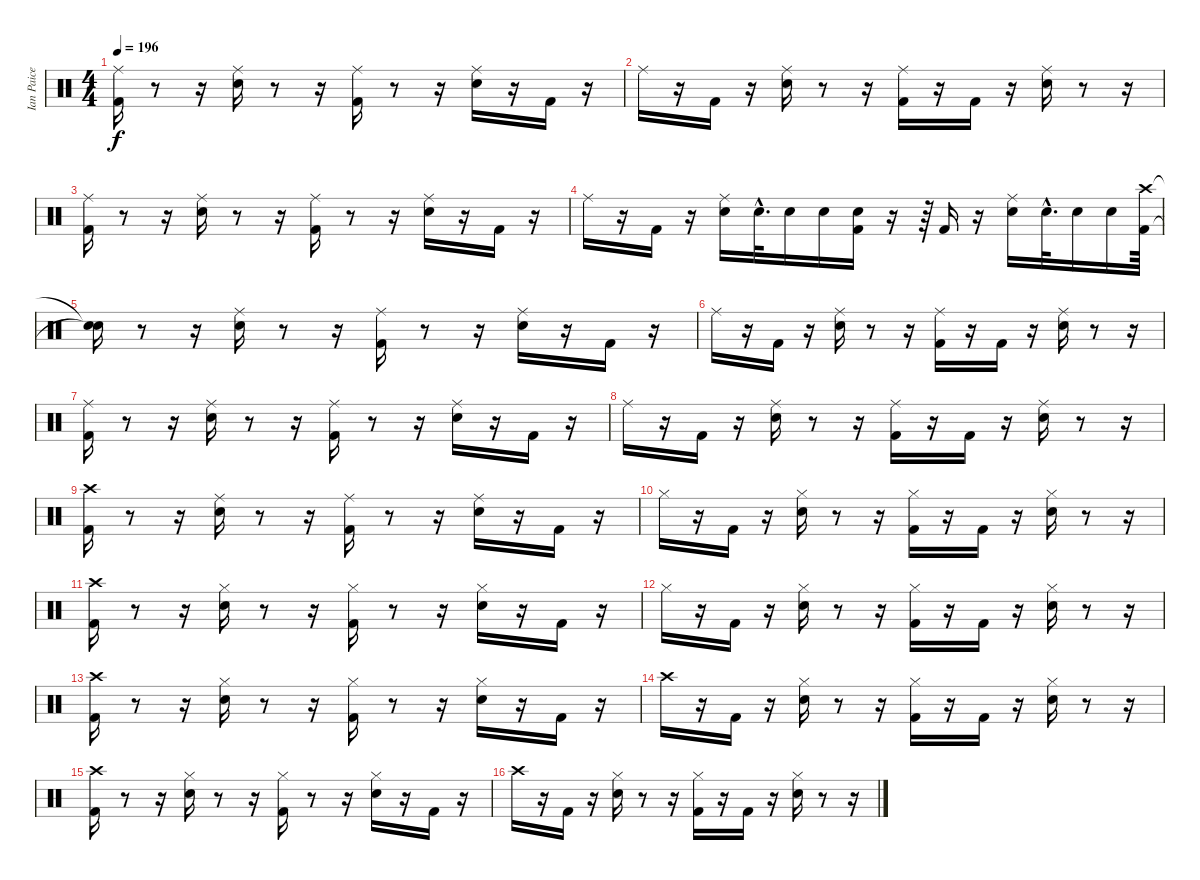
\track ("Ian Paice" "Ian Paice") {instrument percussion}
\staff {score}
\articulation defaults
\ts (4 4)
\tempo 196
\clef neutral
\ks c
("Kick (hit) 2" "Ride (middle)").16{dy f} r.8 r.16 ("Snare (hit) 2" "Ride (middle)").16 r.8 r.16 ("Kick (hit) 2" "Ride (middle)").16 r.8 r.16 ("Snare (hit) 2" "Ride (middle)").16 r.16 "Kick (hit) 2".16 r.16 |
"Ride (middle)".16 r.16 "Kick (hit) 2".16 r.16 ("Snare (hit) 2" "Ride (middle)").16 r.8 r.16 ("Kick (hit) 2" "Ride (middle)").16 r.16 "Kick (hit) 2".16 r.16 ("Snare (hit) 2" "Ride (middle)").16 r.8 r.16 |
("Kick (hit) 2" "Ride (middle)").16 r.8 r.16 ("Snare (hit) 2" "Ride (middle)").16 r.8 r.16 ("Kick (hit) 2" "Ride (middle)").16 r.8 r.16 ("Snare (hit) 2" "Ride (middle)").16 r.16 "Kick (hit) 2".16 r.16 |
"Ride (middle)".16 r.16 "Kick (hit) 2".16 r.16 ("Snare (hit) 2" "Ride (middle)").16 "Snare (hit) 2"{hac}.32{d} "Snare (hit) 2".16 "Snare (hit) 2".16 ("Kick (hit) 2" "Snare (hit) 2").16 r.16 r.64 "Kick (hit) 2".16 r.16 ("Snare (hit) 2" "Ride (middle)").16 "Snare (hit) 2"{hac}.32{d} "Snare (hit) 2".16 "Snare (hit) 2".16 ("Kick (hit) 2" "Crash high (hit)").64 |
("Snare (hit)"{t} "Snare (hit)"{t}).16 r.8 r.16 ("Snare (hit) 2" "Ride (middle)").16 r.8 r.16 ("Kick (hit) 2" "Ride (middle)").16 r.8 r.16 ("Snare (hit) 2" "Ride (middle)").16 r.16 "Kick (hit) 2".16 r.16 |
"Ride (middle)".16 r.16 "Kick (hit) 2".16 r.16 ("Snare (hit) 2" "Ride (middle)").16 r.8 r.16 ("Kick (hit) 2" "Ride (middle)").16 r.16 "Kick (hit) 2".16 r.16 ("Snare (hit) 2" "Ride (middle)").16 r.8 r.16 |
("Kick (hit) 2" "Ride (middle)").16 r.8 r.16 ("Snare (hit) 2" "Ride (middle)").16 r.8 r.16 ("Kick (hit) 2" "Ride (middle)").16 r.8 r.16 ("Snare (hit) 2" "Ride (middle)").16 r.16 "Kick (hit) 2".16 r.16 |
"Ride (middle)".16 r.16 "Kick (hit) 2".16 r.16 ("Snare (hit) 2" "Ride (middle)").16 r.8 r.16 ("Kick (hit) 2" "Ride (middle)").16 r.16 "Kick (hit) 2".16 r.16 ("Snare (hit) 2" "Ride (middle)").16 r.8 r.16 |
("Kick (hit) 2" "Crash high (hit)").16 r.8 r.16 ("Snare (hit) 2" "Ride (middle)").16 r.8 r.16 ("Kick (hit) 2" "Ride (middle)").16 r.8 r.16 ("Snare (hit) 2" "Ride (middle)").16 r.16 "Kick (hit) 2".16 r.16 |
"Hi-Hat (closed)".16 r.16 "Kick (hit) 2".16 r.16 ("Snare (hit) 2" "Hi-Hat (closed)").16 r.8 r.16 ("Kick (hit) 2" "Hi-Hat (closed)").16 r.16 "Kick (hit) 2".16 r.16 ("Snare (hit) 2" "Hi-Hat (closed)").16 r.8 r.16 |
("Kick (hit) 2" "Crash high (hit)").16 r.8 r.16 ("Snare (hit) 2" "Hi-Hat (closed)").16 r.8 r.16 ("Kick (hit) 2" "Hi-Hat (closed)").16 r.8 r.16 ("Snare (hit) 2" "Hi-Hat (closed)").16 r.16 "Kick (hit) 2".16 r.16 |
"Hi-Hat (closed)".16 r.16 "Kick (hit) 2".16 r.16 ("Snare (hit) 2" "Hi-Hat (closed)").16 r.8 r.16 ("Kick (hit) 2" "Hi-Hat (closed)").16 r.16 "Kick (hit) 2".16 r.16 ("Snare (hit) 2" "Hi-Hat (closed)").16 r.8 r.16 |
("Kick (hit) 2" "Crash high (hit)").16 r.8 r.16 ("Snare (hit) 2" "Hi-Hat (closed)").16 r.8 r.16 ("Kick (hit) 2" "Hi-Hat (closed)").16 r.8 r.16 ("Snare (hit) 2" "Hi-Hat (closed)").16 r.16 "Kick (hit) 2".16 r.16 |
"Crash high (hit)".16 r.16 "Kick (hit) 2".16 r.16 ("Snare (hit) 2" "Hi-Hat (closed)").16 r.8 r.16 ("Kick (hit) 2" "Hi-Hat (closed)").16 r.16 "Kick (hit) 2".16 r.16 ("Snare (hit) 2" "Hi-Hat (closed)").16 r.8 r.16 |
("Kick (hit) 2" "Crash high (hit)").16 r.8 r.16 ("Snare (hit) 2" "Hi-Hat (closed)").16 r.8 r.16 ("Kick (hit) 2" "Hi-Hat (closed)").16 r.8 r.16 ("Snare (hit) 2" "Hi-Hat (closed)").16 r.16 "Kick (hit) 2".16 r.16 |
"Crash high (hit)".16 r.16 "Kick (hit) 2".16 r.16 ("Snare (hit) 2" "Hi-Hat (closed)").16 r.8 r.16 ("Kick (hit) 2" "Hi-Hat (closed)").16 r.16 "Kick (hit) 2".16 r.16 ("Snare (hit) 2" "Hi-Hat (closed)").16 r.8 r.16
